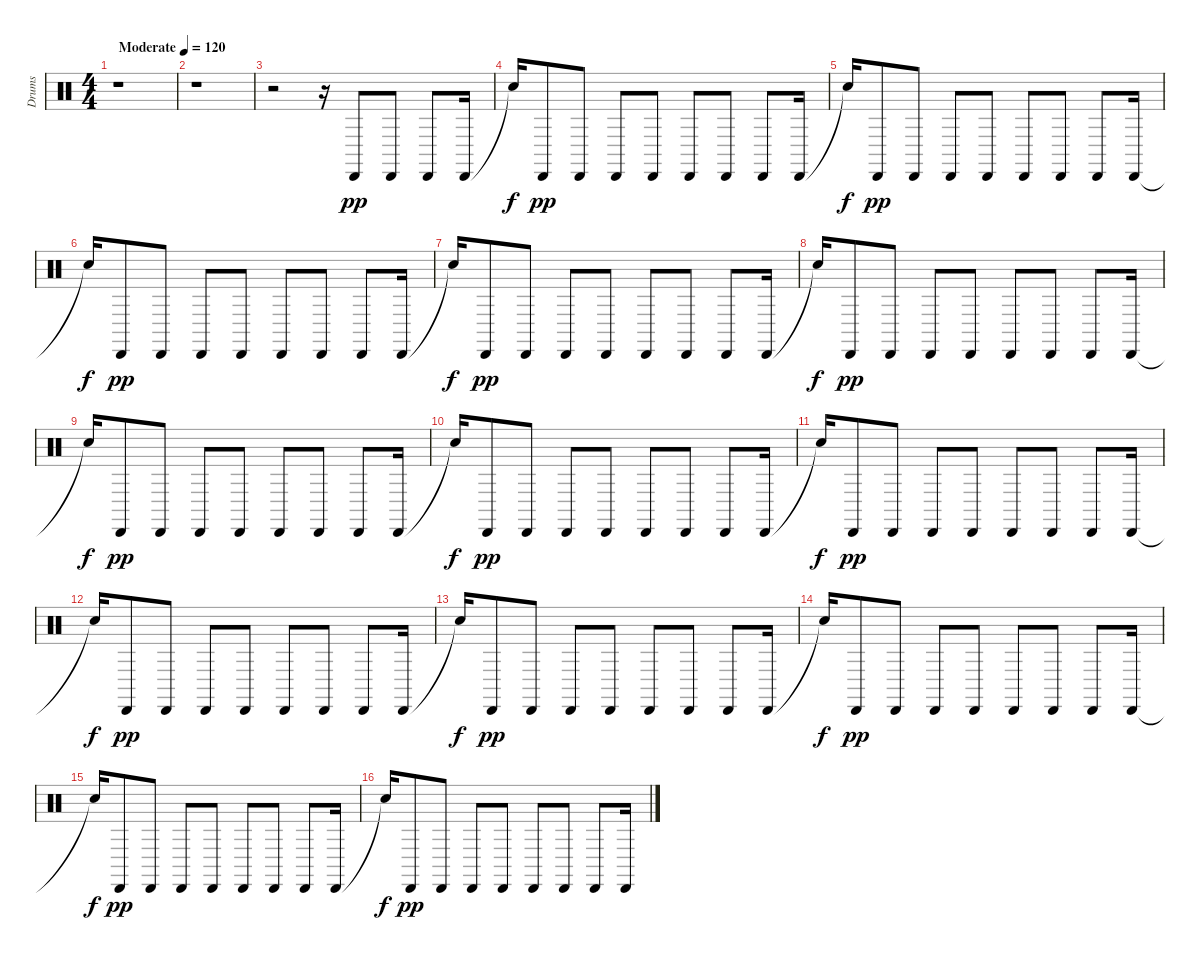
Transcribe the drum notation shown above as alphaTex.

\track ("Drums" "Drums") {instrument percussion}
\staff {score}
\articulation defaults
\ts (4 4)
\tempo (120 "Moderate")
\clef neutral
\ks c
r.1{dy pp} |
r.1 |
r.2 r.16 "Cabasa (hit)".8 "Cabasa (hit)".8 "Cabasa (hit)".8 "Cabasa (hit)".16 |
"Snare (hit)"{t}.16{dy f} "Cabasa (hit)".8{dy pp} "Cabasa (hit)".8 "Cabasa (hit)".8 "Cabasa (hit)".8 "Cabasa (hit)".8 "Cabasa (hit)".8 "Cabasa (hit)".8 "Cabasa (hit)".16 |
"Snare (hit)"{t}.16{dy f} "Cabasa (hit)".8{dy pp} "Cabasa (hit)".8 "Cabasa (hit)".8 "Cabasa (hit)".8 "Cabasa (hit)".8 "Cabasa (hit)".8 "Cabasa (hit)".8 "Cabasa (hit)".16 |
"Snare (hit)"{t}.16{dy f} "Cabasa (hit)".8{dy pp} "Cabasa (hit)".8 "Cabasa (hit)".8 "Cabasa (hit)".8 "Cabasa (hit)".8 "Cabasa (hit)".8 "Cabasa (hit)".8 "Cabasa (hit)".16 |
"Snare (hit)"{t}.16{dy f} "Cabasa (hit)".8{dy pp} "Cabasa (hit)".8 "Cabasa (hit)".8 "Cabasa (hit)".8 "Cabasa (hit)".8 "Cabasa (hit)".8 "Cabasa (hit)".8 "Cabasa (hit)".16 |
"Snare (hit)"{t}.16{dy f} "Cabasa (hit)".8{dy pp} "Cabasa (hit)".8 "Cabasa (hit)".8 "Cabasa (hit)".8 "Cabasa (hit)".8 "Cabasa (hit)".8 "Cabasa (hit)".8 "Cabasa (hit)".16 |
"Snare (hit)"{t}.16{dy f} "Cabasa (hit)".8{dy pp} "Cabasa (hit)".8 "Cabasa (hit)".8 "Cabasa (hit)".8 "Cabasa (hit)".8 "Cabasa (hit)".8 "Cabasa (hit)".8 "Cabasa (hit)".16 |
"Snare (hit)"{t}.16{dy f} "Cabasa (hit)".8{dy pp} "Cabasa (hit)".8 "Cabasa (hit)".8 "Cabasa (hit)".8 "Cabasa (hit)".8 "Cabasa (hit)".8 "Cabasa (hit)".8 "Cabasa (hit)".16 |
"Snare (hit)"{t}.16{dy f} "Cabasa (hit)".8{dy pp} "Cabasa (hit)".8 "Cabasa (hit)".8 "Cabasa (hit)".8 "Cabasa (hit)".8 "Cabasa (hit)".8 "Cabasa (hit)".8 "Cabasa (hit)".16 |
"Snare (hit)"{t}.16{dy f} "Cabasa (hit)".8{dy pp} "Cabasa (hit)".8 "Cabasa (hit)".8 "Cabasa (hit)".8 "Cabasa (hit)".8 "Cabasa (hit)".8 "Cabasa (hit)".8 "Cabasa (hit)".16 |
"Snare (hit)"{t}.16{dy f} "Cabasa (hit)".8{dy pp} "Cabasa (hit)".8 "Cabasa (hit)".8 "Cabasa (hit)".8 "Cabasa (hit)".8 "Cabasa (hit)".8 "Cabasa (hit)".8 "Cabasa (hit)".16 |
"Snare (hit)"{t}.16{dy f} "Cabasa (hit)".8{dy pp} "Cabasa (hit)".8 "Cabasa (hit)".8 "Cabasa (hit)".8 "Cabasa (hit)".8 "Cabasa (hit)".8 "Cabasa (hit)".8 "Cabasa (hit)".16 |
"Snare (hit)"{t}.16{dy f} "Cabasa (hit)".8{dy pp} "Cabasa (hit)".8 "Cabasa (hit)".8 "Cabasa (hit)".8 "Cabasa (hit)".8 "Cabasa (hit)".8 "Cabasa (hit)".8 "Cabasa (hit)".16 |
"Snare (hit)"{t}.16{dy f} "Cabasa (hit)".8{dy pp} "Cabasa (hit)".8 "Cabasa (hit)".8 "Cabasa (hit)".8 "Cabasa (hit)".8 "Cabasa (hit)".8 "Cabasa (hit)".8 "Cabasa (hit)".16
